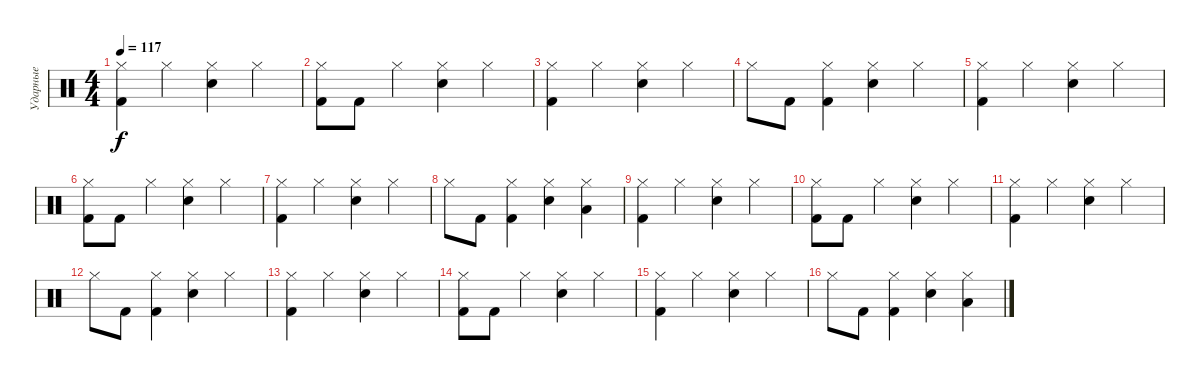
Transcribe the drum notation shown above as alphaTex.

\track ("Ударные" "Ударные") {instrument percussion}
\staff {score}
\articulation defaults
\ts (4 4)
\tempo 117
\clef neutral
\ks c
("Hi-Hat (closed)" "Kick (hit) 2").4{dy f} "Hi-Hat (closed)".4 ("Hi-Hat (closed)" "Electric Snare (hit)").4 "Hi-Hat (closed)".4 |
("Hi-Hat (closed)" "Kick (hit) 2").8 "Kick (hit) 2".8 "Hi-Hat (closed)".4 ("Hi-Hat (closed)" "Electric Snare (hit)").4 "Hi-Hat (closed)".4 |
("Hi-Hat (closed)" "Kick (hit) 2").4 "Hi-Hat (closed)".4 ("Hi-Hat (closed)" "Electric Snare (hit)").4 "Hi-Hat (closed)".4 |
"Hi-Hat (closed)".8 "Kick (hit) 2".8 ("Hi-Hat (closed)" "Kick (hit) 2").4 ("Hi-Hat (closed)" "Electric Snare (hit)").4 "Hi-Hat (closed)".4 |
("Hi-Hat (closed)" "Kick (hit) 2").4 "Hi-Hat (closed)".4 ("Hi-Hat (closed)" "Electric Snare (hit)").4 "Hi-Hat (closed)".4 |
("Hi-Hat (closed)" "Kick (hit) 2").8 "Kick (hit) 2".8 "Hi-Hat (closed)".4 ("Hi-Hat (closed)" "Electric Snare (hit)").4 "Hi-Hat (closed)".4 |
("Hi-Hat (closed)" "Kick (hit) 2").4 "Hi-Hat (closed)".4 ("Hi-Hat (closed)" "Electric Snare (hit)").4 "Hi-Hat (closed)".4 |
"Hi-Hat (closed)".8 "Kick (hit) 2".8 ("Hi-Hat (closed)" "Kick (hit) 2").4 ("Hi-Hat (closed)" "Electric Snare (hit)").4 ("Hi-Hat (closed)" "Low Floor Tom (hit)").4 |
("Hi-Hat (closed)" "Kick (hit) 2").4 "Hi-Hat (closed)".4 ("Hi-Hat (closed)" "Electric Snare (hit)").4 "Hi-Hat (closed)".4 |
("Hi-Hat (closed)" "Kick (hit) 2").8 "Kick (hit) 2".8 "Hi-Hat (closed)".4 ("Hi-Hat (closed)" "Electric Snare (hit)").4 "Hi-Hat (closed)".4 |
("Hi-Hat (closed)" "Kick (hit) 2").4 "Hi-Hat (closed)".4 ("Hi-Hat (closed)" "Electric Snare (hit)").4 "Hi-Hat (closed)".4 |
"Hi-Hat (closed)".8 "Kick (hit) 2".8 ("Hi-Hat (closed)" "Kick (hit) 2").4 ("Hi-Hat (closed)" "Electric Snare (hit)").4 "Hi-Hat (closed)".4 |
("Hi-Hat (closed)" "Kick (hit) 2").4 "Hi-Hat (closed)".4 ("Hi-Hat (closed)" "Electric Snare (hit)").4 "Hi-Hat (closed)".4 |
("Hi-Hat (closed)" "Kick (hit) 2").8 "Kick (hit) 2".8 "Hi-Hat (closed)".4 ("Hi-Hat (closed)" "Electric Snare (hit)").4 "Hi-Hat (closed)".4 |
("Hi-Hat (closed)" "Kick (hit) 2").4 "Hi-Hat (closed)".4 ("Hi-Hat (closed)" "Electric Snare (hit)").4 "Hi-Hat (closed)".4 |
"Hi-Hat (closed)".8 "Kick (hit) 2".8 ("Hi-Hat (closed)" "Kick (hit) 2").4 ("Hi-Hat (closed)" "Electric Snare (hit)").4 ("Hi-Hat (closed)" "Low Floor Tom (hit)").4
